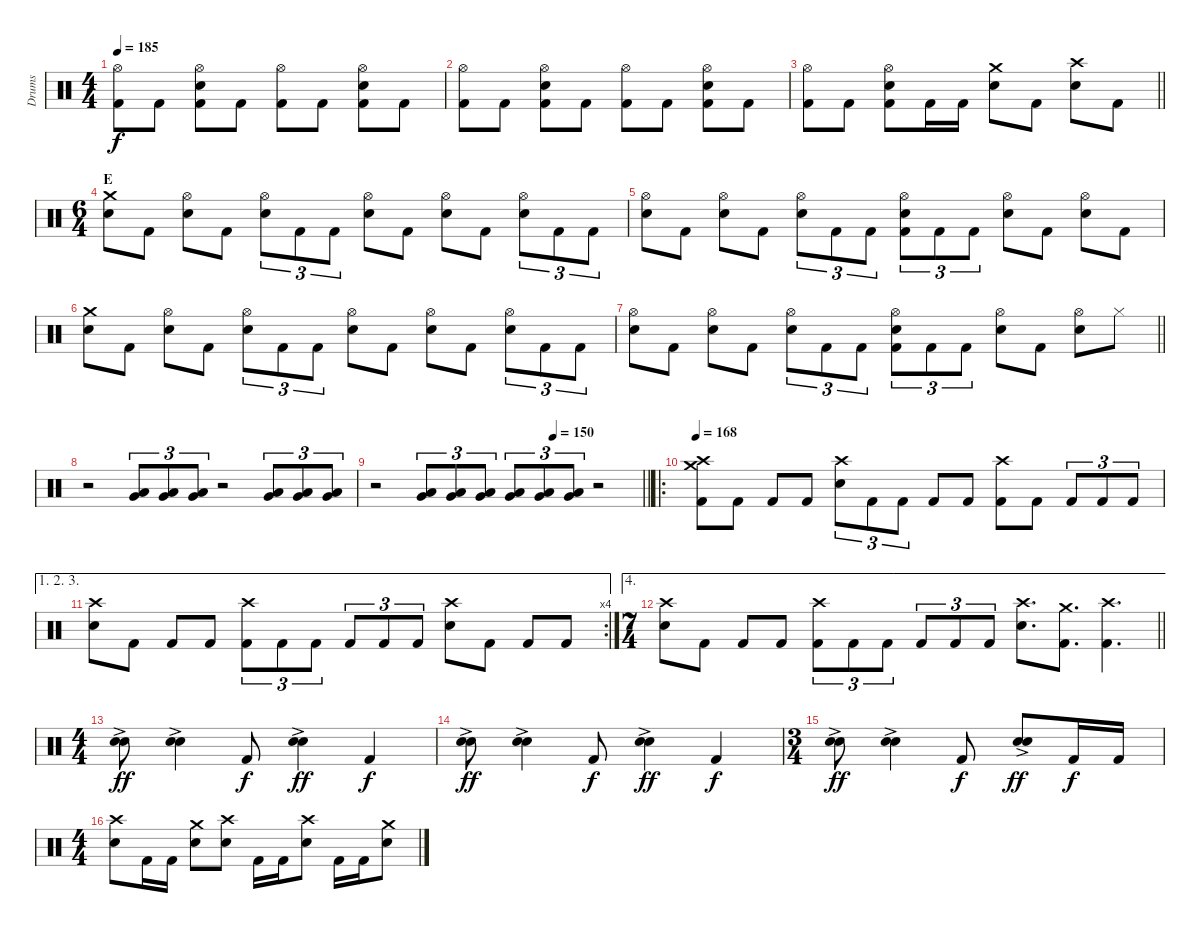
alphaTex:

\track ("Drums" "Drums") {instrument percussion}
\staff {score}
\articulation defaults
\ts (4 4)
\tempo 185
\clef neutral
\ks c
("Hi-Hat (open)" "Kick (hit) 2").8{dy f} "Kick (hit) 2".8 ("Hi-Hat (open)" "Electric Snare (hit)" "Kick (hit) 2").8 "Kick (hit) 2".8 ("Hi-Hat (open)" "Kick (hit) 2").8 "Kick (hit) 2".8 ("Hi-Hat (open)" "Electric Snare (hit)" "Kick (hit) 2").8 "Kick (hit) 2".8 |
("Hi-Hat (open)" "Kick (hit) 2").8 "Kick (hit) 2".8 ("Hi-Hat (open)" "Electric Snare (hit)" "Kick (hit) 2").8 "Kick (hit) 2".8 ("Hi-Hat (open)" "Kick (hit) 2").8 "Kick (hit) 2".8 ("Hi-Hat (open)" "Electric Snare (hit)" "Kick (hit) 2").8 "Kick (hit) 2".8 |
\barLineRight lightlight
("Hi-Hat (open)" "Kick (hit) 2").8 "Kick (hit) 2".8 ("Hi-Hat (open)" "Electric Snare (hit)" "Kick (hit) 2").8 "Kick (hit) 2".16 "Kick (hit) 2".16 ("Crash medium (hit)" "Electric Snare (hit)").8 "Kick (hit) 2".8 ("Crash high (hit)" "Electric Snare (hit)").8 "Kick (hit) 2".8 |
\ts (6 4)
\section ("" "E")
("Crash medium (hit)" "Electric Snare (hit)").8 "Kick (hit) 2".8 ("Hi-Hat (open)" "Electric Snare (hit)").8 "Kick (hit) 2".8 ("Hi-Hat (open)" "Electric Snare (hit)").8{tu (3 2)} "Kick (hit) 2".8{tu (3 2)} "Kick (hit) 2".8{tu (3 2)} ("Hi-Hat (open)" "Electric Snare (hit)").8 "Kick (hit) 2".8 ("Hi-Hat (open)" "Electric Snare (hit)").8 "Kick (hit) 2".8 ("Hi-Hat (open)" "Electric Snare (hit)").8{tu (3 2)} "Kick (hit) 2".8{tu (3 2)} "Kick (hit) 2".8{tu (3 2)} |
("Hi-Hat (open)" "Electric Snare (hit)").8 "Kick (hit) 2".8 ("Hi-Hat (open)" "Electric Snare (hit)").8 "Kick (hit) 2".8 ("Hi-Hat (open)" "Electric Snare (hit)").8{tu (3 2)} "Kick (hit) 2".8{tu (3 2)} "Kick (hit) 2".8{tu (3 2)} ("Hi-Hat (open)" "Electric Snare (hit)" "Kick (hit) 2").8{tu (3 2)} "Kick (hit) 2".8{tu (3 2)} "Kick (hit) 2".8{tu (3 2)} ("Hi-Hat (open)" "Electric Snare (hit)").8 "Kick (hit) 2".8 ("Hi-Hat (open)" "Electric Snare (hit)").8 "Kick (hit) 2".8 |
("Crash medium (hit)" "Electric Snare (hit)").8 "Kick (hit) 2".8 ("Hi-Hat (open)" "Electric Snare (hit)").8 "Kick (hit) 2".8 ("Hi-Hat (open)" "Electric Snare (hit)").8{tu (3 2)} "Kick (hit) 2".8{tu (3 2)} "Kick (hit) 2".8{tu (3 2)} ("Hi-Hat (open)" "Electric Snare (hit)").8 "Kick (hit) 2".8 ("Hi-Hat (open)" "Electric Snare (hit)").8 "Kick (hit) 2".8 ("Hi-Hat (open)" "Electric Snare (hit)").8{tu (3 2)} "Kick (hit) 2".8{tu (3 2)} "Kick (hit) 2".8{tu (3 2)} |
\barLineRight lightlight
("Hi-Hat (open)" "Electric Snare (hit)").8 "Kick (hit) 2".8 ("Hi-Hat (open)" "Electric Snare (hit)").8 "Kick (hit) 2".8 ("Hi-Hat (open)" "Electric Snare (hit)").8{tu (3 2)} "Kick (hit) 2".8{tu (3 2)} "Kick (hit) 2".8{tu (3 2)} ("Hi-Hat (open)" "Electric Snare (hit)" "Kick (hit) 2").8{tu (3 2)} "Kick (hit) 2".8{tu (3 2)} "Kick (hit) 2".8{tu (3 2)} ("Hi-Hat (open)" "Electric Snare (hit)").8 "Kick (hit) 2".8 ("Hi-Hat (open)" "Electric Snare (hit)").8 "Hi-Hat (closed)".8 |
\section ("" "")
r.2 ("Very Low Tom (hit)" "Low Floor Tom (hit)").8{tu (3 2)} ("Very Low Tom (hit)" "Low Floor Tom (hit)").8{tu (3 2)} ("Very Low Tom (hit)" "Low Floor Tom (hit)").8{tu (3 2)} r.2 ("Very Low Tom (hit)" "Low Floor Tom (hit)").8{tu (3 2)} ("Very Low Tom (hit)" "Low Floor Tom (hit)").8{tu (3 2)} ("Very Low Tom (hit)" "Low Floor Tom (hit)").8{tu (3 2)} |
\tempo (150 0.6666666666666666)
\barLineRight lightlight
r.2 ("Very Low Tom (hit)" "Low Floor Tom (hit)").8{tu (3 2)} ("Very Low Tom (hit)" "Low Floor Tom (hit)").8{tu (3 2)} ("Very Low Tom (hit)" "Low Floor Tom (hit)").8{tu (3 2)} ("Very Low Tom (hit)" "Low Floor Tom (hit)").8{tu (3 2)} ("Very Low Tom (hit)" "Low Floor Tom (hit)").8{tu (3 2)} ("Very Low Tom (hit)" "Low Floor Tom (hit)").8{tu (3 2)} r.2 |
\ro
\section ("" "")
\tempo 168
("Crash medium (hit)" "Crash high (hit)" "Kick (hit) 2").8 "Kick (hit) 2".8 "Kick (hit) 2".8 "Kick (hit) 2".8 ("Crash high (hit)" "Electric Snare (hit)").8{tu (3 2)} "Kick (hit) 2".8{tu (3 2)} "Kick (hit) 2".8{tu (3 2)} "Kick (hit) 2".8 "Kick (hit) 2".8 ("Crash high (hit)" "Kick (hit) 2").8 "Kick (hit) 2".8 "Kick (hit) 2".8{tu (3 2)} "Kick (hit) 2".8{tu (3 2)} "Kick (hit) 2".8{tu (3 2)} |
\ae (1 2 3)
\rc 4
("Crash high (hit)" "Electric Snare (hit)").8 "Kick (hit) 2".8 "Kick (hit) 2".8 "Kick (hit) 2".8 ("Crash high (hit)" "Kick (hit) 2").8{tu (3 2)} "Kick (hit) 2".8{tu (3 2)} "Kick (hit) 2".8{tu (3 2)} "Kick (hit) 2".8{tu (3 2)} "Kick (hit) 2".8{tu (3 2)} "Kick (hit) 2".8{tu (3 2)} ("Crash high (hit)" "Electric Snare (hit)").8 "Kick (hit) 2".8 "Kick (hit) 2".8 "Kick (hit) 2".8 |
\ae 4
\ts (7 4)
\barLineRight lightlight
("Crash high (hit)" "Electric Snare (hit)").8 "Kick (hit) 2".8 "Kick (hit) 2".8 "Kick (hit) 2".8 ("Crash high (hit)" "Kick (hit) 2").8{tu (3 2)} "Kick (hit) 2".8{tu (3 2)} "Kick (hit) 2".8{tu (3 2)} "Kick (hit) 2".8{tu (3 2)} "Kick (hit) 2".8{tu (3 2)} "Kick (hit) 2".8{tu (3 2)} ("Crash high (hit)" "Electric Snare (hit)").8{d} ("Crash medium (hit)" "Kick (hit) 2").8{d} ("Crash high (hit)" "Kick (hit) 2").4{d} |
\ts (4 4)
\section ("" "")
("Hand Clap (hit)"{ac} "Electric Snare (hit)").8{dy ff} ("Hand Clap (hit)"{ac} "Electric Snare (hit)").4 "Kick (hit) 2".8{dy f} ("Hand Clap (hit)"{ac} "Electric Snare (hit)").4{dy ff} "Kick (hit) 2".4{dy f} |
("Hand Clap (hit)"{ac} "Electric Snare (hit)").8{dy ff} ("Hand Clap (hit)"{ac} "Electric Snare (hit)").4 "Kick (hit) 2".8{dy f} ("Hand Clap (hit)"{ac} "Electric Snare (hit)").4{dy ff} "Kick (hit) 2".4{dy f} |
\ts (3 4)
("Hand Clap (hit)"{ac} "Electric Snare (hit)").8{dy ff} ("Hand Clap (hit)"{ac} "Electric Snare (hit)").4 "Kick (hit) 2".8{dy f} ("Hand Clap (hit)"{ac} "Electric Snare (hit)").8{dy ff} "Kick (hit) 2".16{dy f} "Kick (hit) 2".16 |
\ts (4 4)
("Crash high (hit)" "Electric Snare (hit)").8 "Kick (hit) 2".16 "Kick (hit) 2".16 ("Crash medium (hit)" "Electric Snare (hit)").8 ("Crash high (hit)" "Electric Snare (hit)").8 "Kick (hit) 2".16 "Kick (hit) 2".16 ("Crash high (hit)" "Electric Snare (hit)").8 "Kick (hit) 2".16 "Kick (hit) 2".16 ("Crash medium (hit)" "Electric Snare (hit)").8
